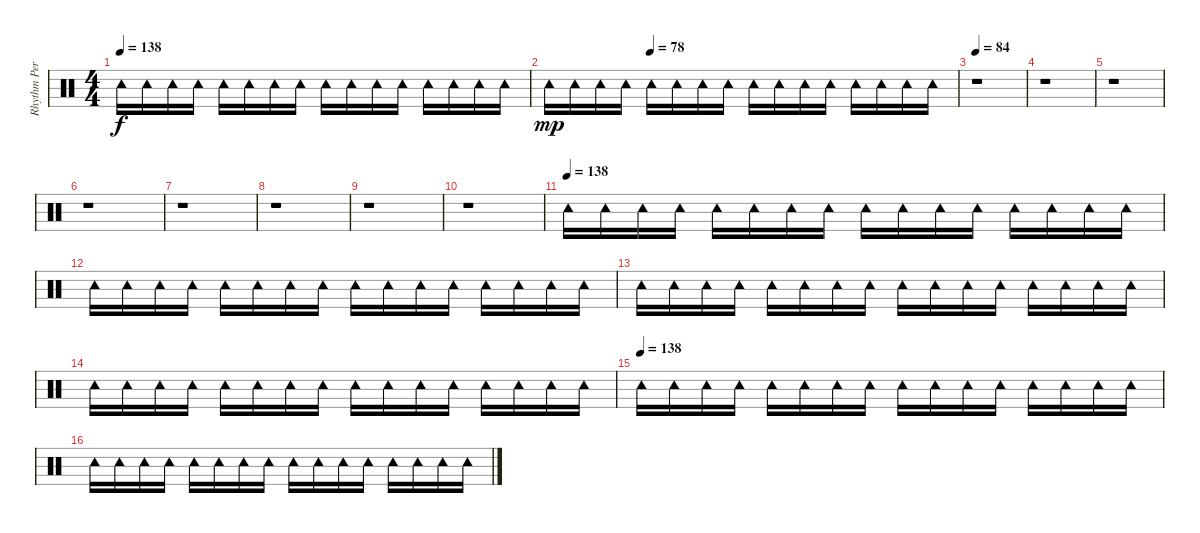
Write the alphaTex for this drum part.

\track ("Rhythm Percussion" "Rhythm Per") {instrument percussion}
\staff {score}
\articulation defaults
\ts (4 4)
\tempo 138
\clef neutral
\ks c "Tambourine (hit)".16{dy f} "Tambourine (hit)".16 "Tambourine (hit)".16 "Tambourine (hit)".16 "Tambourine (hit)".16 "Tambourine (hit)".16 "Tambourine (hit)".16 "Tambourine (hit)".16 "Tambourine (hit)".16 "Tambourine (hit)".16 "Tambourine (hit)".16 "Tambourine (hit)".16 "Tambourine (hit)".16 "Tambourine (hit)".16 "Tambourine (hit)".16 "Tambourine (hit)".16
|
\tempo (78 0.25)
"Tambourine (hit)".16{dy mp} "Tambourine (hit)".16 "Tambourine (hit)".16 "Tambourine (hit)".16 "Tambourine (hit)".16 "Tambourine (hit)".16 "Tambourine (hit)".16 "Tambourine (hit)".16 "Tambourine (hit)".16 "Tambourine (hit)".16 "Tambourine (hit)".16 "Tambourine (hit)".16 "Tambourine (hit)".16 "Tambourine (hit)".16 "Tambourine (hit)".16 "Tambourine (hit)".16 |
\tempo 84
r.1 |
r.1 |
r.1 |
r.1 |
r.1 |
r.1 |
r.1 |
r.1 |
\tempo (138)
"Tambourine (hit)".16 "Tambourine (hit)".16 "Tambourine (hit)".16 "Tambourine (hit)".16 "Tambourine (hit)".16 "Tambourine (hit)".16 "Tambourine (hit)".16 "Tambourine (hit)".16 "Tambourine (hit)".16 "Tambourine (hit)".16 "Tambourine (hit)".16 "Tambourine (hit)".16 "Tambourine (hit)".16 "Tambourine (hit)".16 "Tambourine (hit)".16 "Tambourine (hit)".16 |
"Tambourine (hit)".16 "Tambourine (hit)".16 "Tambourine (hit)".16 "Tambourine (hit)".16 "Tambourine (hit)".16 "Tambourine (hit)".16 "Tambourine (hit)".16 "Tambourine (hit)".16 "Tambourine (hit)".16 "Tambourine (hit)".16 "Tambourine (hit)".16 "Tambourine (hit)".16 "Tambourine (hit)".16 "Tambourine (hit)".16 "Tambourine (hit)".16 "Tambourine (hit)".16 |
"Tambourine (hit)".16 "Tambourine (hit)".16 "Tambourine (hit)".16 "Tambourine (hit)".16 "Tambourine (hit)".16 "Tambourine (hit)".16 "Tambourine (hit)".16 "Tambourine (hit)".16 "Tambourine (hit)".16 "Tambourine (hit)".16 "Tambourine (hit)".16 "Tambourine (hit)".16 "Tambourine (hit)".16 "Tambourine (hit)".16 "Tambourine (hit)".16 "Tambourine (hit)".16 |
"Tambourine (hit)".16 "Tambourine (hit)".16 "Tambourine (hit)".16 "Tambourine (hit)".16 "Tambourine (hit)".16 "Tambourine (hit)".16 "Tambourine (hit)".16 "Tambourine (hit)".16 "Tambourine (hit)".16 "Tambourine (hit)".16 "Tambourine (hit)".16 "Tambourine (hit)".16 "Tambourine (hit)".16 "Tambourine (hit)".16 "Tambourine (hit)".16 "Tambourine (hit)".16 |
\tempo (138)
"Tambourine (hit)".16 "Tambourine (hit)".16 "Tambourine (hit)".16 "Tambourine (hit)".16 "Tambourine (hit)".16 "Tambourine (hit)".16 "Tambourine (hit)".16 "Tambourine (hit)".16 "Tambourine (hit)".16 "Tambourine (hit)".16 "Tambourine (hit)".16 "Tambourine (hit)".16 "Tambourine (hit)".16 "Tambourine (hit)".16 "Tambourine (hit)".16 "Tambourine (hit)".16 |
"Tambourine (hit)".16 "Tambourine (hit)".16 "Tambourine (hit)".16 "Tambourine (hit)".16 "Tambourine (hit)".16 "Tambourine (hit)".16 "Tambourine (hit)".16 "Tambourine (hit)".16 "Tambourine (hit)".16 "Tambourine (hit)".16 "Tambourine (hit)".16 "Tambourine (hit)".16 "Tambourine (hit)".16 "Tambourine (hit)".16 "Tambourine (hit)".16 "Tambourine (hit)".16
